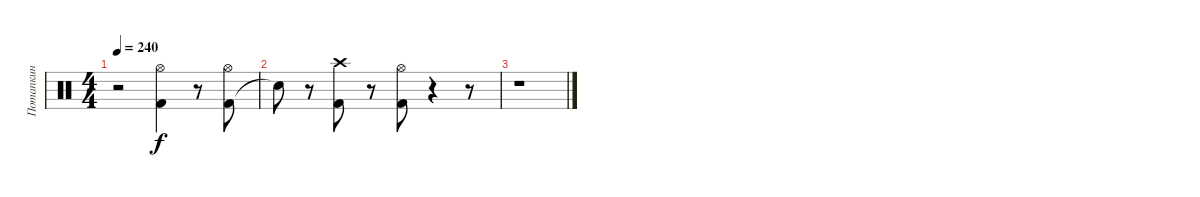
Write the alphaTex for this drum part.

\track ("Потапкин" "Потапкин") {instrument percussion}
\staff {score}
\articulation defaults
\ts (4 4)
\tempo 240
\clef neutral
\ks c
r.2{dy f} ("Hi-Hat (open)" "Kick (hit) 2").4 r.8 ("Kick (hit) 2" "Hi-Hat (open)").8 |
"Snare (hit)"{t}.8 r.8 ("Kick (hit) 2" "Crash high (hit)").8 r.8 ("Kick (hit) 2" "Hi-Hat (open)").8 r.4 r.8 |
r.1
